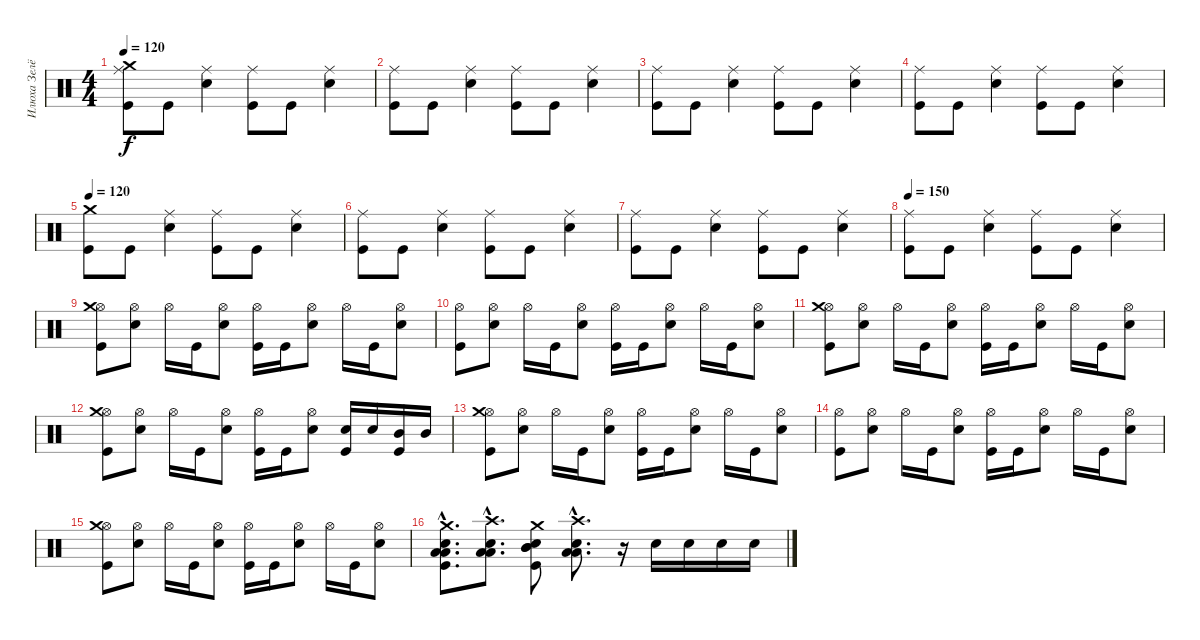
\track ("Илюха Зелёный (БАРАБАНЫ)" "Илюха Зелё") {instrument percussion}
\staff {score}
\articulation defaults
\ts (4 4)
\tempo 120
\clef neutral
\ks c
("Ride (middle)" "Crash medium (hit)" "Kick (hit)").8{dy f} "Kick (hit)".8 ("Ride (middle)" "Electric Snare (hit)").4 ("Ride (middle)" "Kick (hit)").8 "Kick (hit)".8 ("Ride (middle)" "Electric Snare (hit)").4 |
("Ride (middle)" "Kick (hit)").8 "Kick (hit)".8 ("Ride (middle)" "Electric Snare (hit)").4 ("Ride (middle)" "Kick (hit)").8 "Kick (hit)".8 ("Ride (middle)" "Electric Snare (hit)").4 |
("Ride (middle)" "Kick (hit)").8 "Kick (hit)".8 ("Ride (middle)" "Electric Snare (hit)").4 ("Ride (middle)" "Kick (hit)").8 "Kick (hit)".8 ("Ride (middle)" "Electric Snare (hit)").4 |
("Ride (middle)" "Kick (hit)").8 "Kick (hit)".8 ("Ride (middle)" "Electric Snare (hit)").4 ("Ride (middle)" "Kick (hit)").8 "Kick (hit)".8 ("Ride (middle)" "Electric Snare (hit)").4 |
\tempo 120
("Crash medium (hit)" "Kick (hit)").8 "Kick (hit)".8 ("Ride (middle)" "Electric Snare (hit)").4 ("Ride (middle)" "Kick (hit)").8 "Kick (hit)".8 ("Ride (middle)" "Electric Snare (hit)").4 |
("Ride (middle)" "Kick (hit)").8 "Kick (hit)".8 ("Ride (middle)" "Electric Snare (hit)").4 ("Ride (middle)" "Kick (hit)").8 "Kick (hit)".8 ("Ride (middle)" "Electric Snare (hit)").4 |
("Ride (middle)" "Kick (hit)").8 "Kick (hit)".8 ("Ride (middle)" "Electric Snare (hit)").4 ("Ride (middle)" "Kick (hit)").8 "Kick (hit)".8 ("Ride (middle)" "Electric Snare (hit)").4 |
\tempo 150
("Ride (middle)" "Kick (hit)").8 "Kick (hit)".8 ("Ride (middle)" "Electric Snare (hit)").4 ("Ride (middle)" "Kick (hit)").8 "Kick (hit)".8 ("Ride (middle)" "Electric Snare (hit)").4 |
("Hi-Hat (open)" "Crash medium (hit)" "Kick (hit)").8 ("Hi-Hat (open)" "Electric Snare (hit)").8 "Hi-Hat (open)".16 "Kick (hit)".16 ("Hi-Hat (open)" "Electric Snare (hit)").8 ("Hi-Hat (open)" "Kick (hit)").16 "Kick (hit)".16 ("Hi-Hat (open)" "Electric Snare (hit)").8 "Hi-Hat (open)".16 "Kick (hit)".16 ("Hi-Hat (open)" "Electric Snare (hit)").8 |
("Hi-Hat (open)" "Kick (hit)").8 ("Hi-Hat (open)" "Electric Snare (hit)").8 "Hi-Hat (open)".16 "Kick (hit)".16 ("Hi-Hat (open)" "Electric Snare (hit)").8 ("Hi-Hat (open)" "Kick (hit)").16 "Kick (hit)".16 ("Hi-Hat (open)" "Electric Snare (hit)").8 "Hi-Hat (open)".16 "Kick (hit)".16 ("Hi-Hat (open)" "Electric Snare (hit)").8 |
("Hi-Hat (open)" "Crash medium (hit)" "Kick (hit)").8 ("Hi-Hat (open)" "Electric Snare (hit)").8 "Hi-Hat (open)".16 "Kick (hit)".16 ("Hi-Hat (open)" "Electric Snare (hit)").8 ("Hi-Hat (open)" "Kick (hit)").16 "Kick (hit)".16 ("Hi-Hat (open)" "Electric Snare (hit)").8 "Hi-Hat (open)".16 "Kick (hit)".16 ("Hi-Hat (open)" "Electric Snare (hit)").8 |
("Hi-Hat (open)" "Crash medium (hit)" "Kick (hit)").8 ("Hi-Hat (open)" "Electric Snare (hit)").8 "Hi-Hat (open)".16 "Kick (hit)".16 ("Hi-Hat (open)" "Electric Snare (hit)").8 ("Hi-Hat (open)" "Kick (hit)").16 "Kick (hit)".16 ("Hi-Hat (open)" "Electric Snare (hit)").8 ("Electric Snare (hit)" "Kick (hit)").16 "Electric Snare (hit)".16 ("Mid Tom (hit)" "Kick (hit)").16 "Mid Tom (hit)".16 |
("Hi-Hat (open)" "Crash medium (hit)" "Kick (hit)").8 ("Hi-Hat (open)" "Electric Snare (hit)").8 "Hi-Hat (open)".16 "Kick (hit)".16 ("Hi-Hat (open)" "Electric Snare (hit)").8 ("Hi-Hat (open)" "Kick (hit)").16 "Kick (hit)".16 ("Hi-Hat (open)" "Electric Snare (hit)").8 "Hi-Hat (open)".16 "Kick (hit)".16 ("Hi-Hat (open)" "Electric Snare (hit)").8 |
("Hi-Hat (open)" "Kick (hit)").8 ("Hi-Hat (open)" "Electric Snare (hit)").8 "Hi-Hat (open)".16 "Kick (hit)".16 ("Hi-Hat (open)" "Electric Snare (hit)").8 ("Hi-Hat (open)" "Kick (hit)").16 "Kick (hit)".16 ("Hi-Hat (open)" "Electric Snare (hit)").8 "Hi-Hat (open)".16 "Kick (hit)".16 ("Hi-Hat (open)" "Electric Snare (hit)").8 |
("Hi-Hat (open)" "Crash medium (hit)" "Kick (hit)").8 ("Hi-Hat (open)" "Electric Snare (hit)").8 "Hi-Hat (open)".16 "Kick (hit)".16 ("Hi-Hat (open)" "Electric Snare (hit)").8 ("Hi-Hat (open)" "Kick (hit)").16 "Kick (hit)".16 ("Hi-Hat (open)" "Electric Snare (hit)").8 "Hi-Hat (open)".16 "Kick (hit)".16 ("Hi-Hat (open)" "Electric Snare (hit)").8 |
("Crash medium (hit)"{hac} "Low Floor Tom (hit)"{hac} "Low Floor Tom (hit)"{hac} "Electric Snare (hit)"{hac} "Kick (hit)"{hac}).8{d} ("Crash high (hit)"{hac} "Low Floor Tom (hit)"{hac} "Low Floor Tom (hit)"{hac} "Electric Snare (hit)"{hac}).8{d} ("Crash medium (hit)" "Mid Tom (hit)" "Mid Tom (hit)" "Electric Snare (hit)" "Kick (hit)").8 ("Crash high (hit)"{hac} "Low Floor Tom (hit)"{hac} "Low Floor Tom (hit)"{hac} "Electric Snare (hit)"{hac}).8{d} r.16 "Electric Snare (hit)".16 "Electric Snare (hit)".16 "Electric Snare (hit)".16 "Electric Snare (hit)".16
